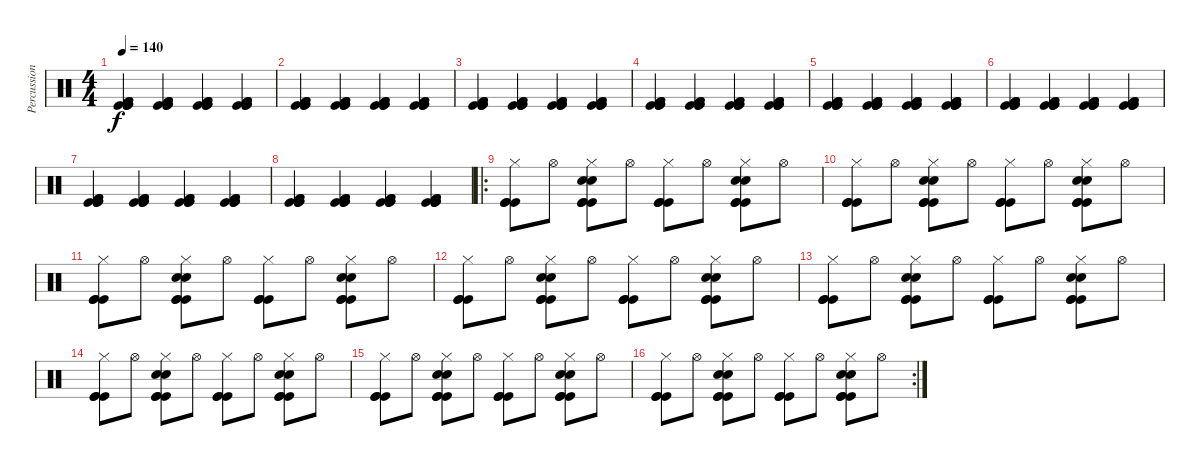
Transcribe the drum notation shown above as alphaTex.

\track ("Percussion" "Percussion") {instrument percussion}
\staff {score}
\articulation defaults
\ts (4 4)
\tempo 140
\clef neutral
\ks c
("Kick (hit) 2" "Kick (hit)" "Kick (hit)" "Kick (hit)" "Kick (hit) 2").4{dy f} ("Kick (hit) 2" "Kick (hit)" "Kick (hit)" "Kick (hit)" "Kick (hit) 2").4 ("Kick (hit) 2" "Kick (hit)" "Kick (hit)" "Kick (hit)" "Kick (hit) 2").4 ("Kick (hit) 2" "Kick (hit)" "Kick (hit)" "Kick (hit)" "Kick (hit) 2").4 |
("Kick (hit) 2" "Kick (hit)" "Kick (hit)" "Kick (hit)" "Kick (hit) 2").4 ("Kick (hit) 2" "Kick (hit)" "Kick (hit)" "Kick (hit)" "Kick (hit) 2").4 ("Kick (hit) 2" "Kick (hit)" "Kick (hit)" "Kick (hit)" "Kick (hit) 2").4 ("Kick (hit) 2" "Kick (hit)" "Kick (hit)" "Kick (hit)" "Kick (hit) 2").4 |
("Kick (hit) 2" "Kick (hit)" "Kick (hit)" "Kick (hit)" "Kick (hit) 2").4 ("Kick (hit) 2" "Kick (hit)" "Kick (hit)" "Kick (hit)" "Kick (hit) 2").4 ("Kick (hit) 2" "Kick (hit)" "Kick (hit)" "Kick (hit)" "Kick (hit) 2").4 ("Kick (hit) 2" "Kick (hit)" "Kick (hit)" "Kick (hit)" "Kick (hit) 2").4 |
("Kick (hit) 2" "Kick (hit)" "Kick (hit)" "Kick (hit)" "Kick (hit) 2").4 ("Kick (hit) 2" "Kick (hit)" "Kick (hit)" "Kick (hit)" "Kick (hit) 2").4 ("Kick (hit) 2" "Kick (hit)" "Kick (hit)" "Kick (hit)" "Kick (hit) 2").4 ("Kick (hit) 2" "Kick (hit)" "Kick (hit)" "Kick (hit)" "Kick (hit) 2").4 |
("Kick (hit) 2" "Kick (hit)" "Kick (hit)" "Kick (hit)" "Kick (hit) 2").4 ("Kick (hit) 2" "Kick (hit)" "Kick (hit)" "Kick (hit)" "Kick (hit) 2").4 ("Kick (hit) 2" "Kick (hit)" "Kick (hit)" "Kick (hit)" "Kick (hit) 2").4 ("Kick (hit) 2" "Kick (hit)" "Kick (hit)" "Kick (hit)" "Kick (hit) 2").4 |
("Kick (hit) 2" "Kick (hit)" "Kick (hit)" "Kick (hit)" "Kick (hit) 2").4 ("Kick (hit) 2" "Kick (hit)" "Kick (hit)" "Kick (hit)" "Kick (hit) 2").4 ("Kick (hit) 2" "Kick (hit)" "Kick (hit)" "Kick (hit)" "Kick (hit) 2").4 ("Kick (hit) 2" "Kick (hit)" "Kick (hit)" "Kick (hit)" "Kick (hit) 2").4 |
("Kick (hit) 2" "Kick (hit)" "Kick (hit)" "Kick (hit)" "Kick (hit) 2").4 ("Kick (hit) 2" "Kick (hit)" "Kick (hit)" "Kick (hit)" "Kick (hit) 2").4 ("Kick (hit) 2" "Kick (hit)" "Kick (hit)" "Kick (hit)" "Kick (hit) 2").4 ("Kick (hit) 2" "Kick (hit)" "Kick (hit)" "Kick (hit)" "Kick (hit) 2").4 |
("Kick (hit) 2" "Kick (hit)" "Kick (hit)" "Kick (hit)" "Kick (hit) 2").4 ("Kick (hit) 2" "Kick (hit)" "Kick (hit)" "Kick (hit)" "Kick (hit) 2").4 ("Kick (hit) 2" "Kick (hit)" "Kick (hit)" "Kick (hit)" "Kick (hit) 2").4 ("Kick (hit) 2" "Kick (hit)" "Kick (hit)" "Kick (hit)" "Kick (hit) 2").4 |
\ro
("Kick (hit)" "Hi-Hat (closed)" "Kick (hit)" "Kick (hit)").8{volume 16} "Hi-Hat (open)".8 ("Electric Snare (hit)" "Kick (hit)" "Kick (hit)" "Hi-Hat (closed)" "Hand Clap (hit)" "Kick (hit)").8 "Hi-Hat (open)".8 ("Kick (hit)" "Kick (hit)" "Hi-Hat (closed)" "Kick (hit)").8 "Hi-Hat (open)".8 ("Electric Snare (hit)" "Kick (hit)" "Kick (hit)" "Hi-Hat (closed)" "Hand Clap (hit)" "Kick (hit)").8 "Hi-Hat (open)".8 |
("Kick (hit)" "Hi-Hat (closed)" "Kick (hit)" "Kick (hit)").8 "Hi-Hat (open)".8 ("Electric Snare (hit)" "Kick (hit)" "Kick (hit)" "Hi-Hat (closed)" "Hand Clap (hit)" "Kick (hit)").8 "Hi-Hat (open)".8 ("Kick (hit)" "Kick (hit)" "Hi-Hat (closed)" "Kick (hit)").8 "Hi-Hat (open)".8 ("Electric Snare (hit)" "Kick (hit)" "Kick (hit)" "Hi-Hat (closed)" "Hand Clap (hit)" "Kick (hit)").8 "Hi-Hat (open)".8 |
("Kick (hit)" "Hi-Hat (closed)" "Kick (hit)" "Kick (hit)").8 "Hi-Hat (open)".8 ("Electric Snare (hit)" "Kick (hit)" "Kick (hit)" "Hi-Hat (closed)" "Hand Clap (hit)" "Kick (hit)").8 "Hi-Hat (open)".8 ("Kick (hit)" "Kick (hit)" "Hi-Hat (closed)" "Kick (hit)").8 "Hi-Hat (open)".8 ("Electric Snare (hit)" "Kick (hit)" "Kick (hit)" "Hi-Hat (closed)" "Hand Clap (hit)" "Kick (hit)").8 "Hi-Hat (open)".8 |
("Kick (hit)" "Hi-Hat (closed)" "Kick (hit)" "Kick (hit)").8 "Hi-Hat (open)".8 ("Electric Snare (hit)" "Kick (hit)" "Kick (hit)" "Hi-Hat (closed)" "Hand Clap (hit)" "Kick (hit)").8 "Hi-Hat (open)".8 ("Kick (hit)" "Kick (hit)" "Hi-Hat (closed)" "Kick (hit)").8 "Hi-Hat (open)".8 ("Electric Snare (hit)" "Kick (hit)" "Kick (hit)" "Hi-Hat (closed)" "Hand Clap (hit)" "Kick (hit)").8 "Hi-Hat (open)".8 |
("Kick (hit)" "Hi-Hat (closed)" "Kick (hit)" "Kick (hit)").8 "Hi-Hat (open)".8 ("Electric Snare (hit)" "Kick (hit)" "Kick (hit)" "Hi-Hat (closed)" "Hand Clap (hit)" "Kick (hit)").8 "Hi-Hat (open)".8 ("Kick (hit)" "Kick (hit)" "Hi-Hat (closed)" "Kick (hit)").8 "Hi-Hat (open)".8 ("Electric Snare (hit)" "Kick (hit)" "Kick (hit)" "Hi-Hat (closed)" "Hand Clap (hit)" "Kick (hit)").8 "Hi-Hat (open)".8 |
("Kick (hit)" "Hi-Hat (closed)" "Kick (hit)" "Kick (hit)").8 "Hi-Hat (open)".8 ("Electric Snare (hit)" "Kick (hit)" "Kick (hit)" "Hi-Hat (closed)" "Hand Clap (hit)" "Kick (hit)").8 "Hi-Hat (open)".8 ("Kick (hit)" "Kick (hit)" "Hi-Hat (closed)" "Kick (hit)").8 "Hi-Hat (open)".8 ("Electric Snare (hit)" "Kick (hit)" "Kick (hit)" "Hi-Hat (closed)" "Hand Clap (hit)" "Kick (hit)").8 "Hi-Hat (open)".8 |
("Kick (hit)" "Hi-Hat (closed)" "Kick (hit)" "Kick (hit)").8 "Hi-Hat (open)".8 ("Electric Snare (hit)" "Kick (hit)" "Kick (hit)" "Hi-Hat (closed)" "Hand Clap (hit)" "Kick (hit)").8 "Hi-Hat (open)".8 ("Kick (hit)" "Kick (hit)" "Hi-Hat (closed)" "Kick (hit)").8 "Hi-Hat (open)".8 ("Electric Snare (hit)" "Kick (hit)" "Kick (hit)" "Hi-Hat (closed)" "Hand Clap (hit)" "Kick (hit)").8 "Hi-Hat (open)".8 |
\rc 2
("Kick (hit)" "Hi-Hat (closed)" "Kick (hit)" "Kick (hit)").8 "Hi-Hat (open)".8 ("Electric Snare (hit)" "Kick (hit)" "Kick (hit)" "Hi-Hat (closed)" "Hand Clap (hit)" "Kick (hit)").8 "Hi-Hat (open)".8 ("Kick (hit)" "Kick (hit)" "Hi-Hat (closed)" "Kick (hit)").8 "Hi-Hat (open)".8 ("Electric Snare (hit)" "Kick (hit)" "Kick (hit)" "Hi-Hat (closed)" "Hand Clap (hit)" "Kick (hit)").8 "Hi-Hat (open)".8
